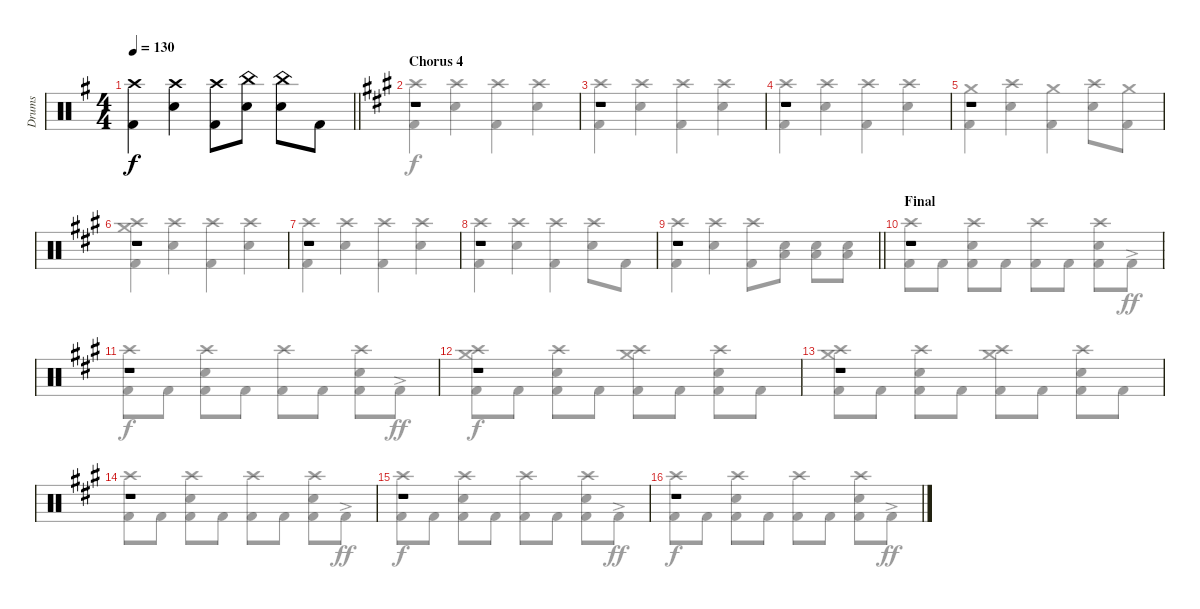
\track ("Drums" "Drums") {instrument percussion}
\staff {score}
\articulation defaults
\voice
\ts (4 4)
\tempo 130
\clef neutral
\barLineRight lightlight
\ks eminor
("Crash high (hit)" "Kick (hit) 2").4{dy f} ("Crash high (hit)" "Snare (hit) 2").4 ("Crash high (hit)" "Kick (hit) 2").8 ("China (hit)" "Snare (hit) 2").8 ("China (hit)" "Snare (hit) 2").8 "Kick (hit) 2".8 |
\section ("" "Chorus 4")
\ks f#minor
r.1 |
r.1 |
r.1 |
r.1 |
r.1 |
r.1 |
r.1 |
\barLineRight lightlight
r.1 |
\section ("" "Final")
r.1 |
r.1 |
r.1 |
r.1 |
r.1 |
r.1 |
r.1
\voice
\clef neutral
\ottava regular
\simile none
\barLineRight lightlight
\ks eminor
|
\ks f#minor
("Crash high (hit)" "Kick (hit) 2").4 ("Crash high (hit)" "Snare (hit) 2").4 ("Crash high (hit)" "Kick (hit) 2").4 ("Crash high (hit)" "Snare (hit) 2").4 |
("Crash high (hit)" "Kick (hit) 2").4 ("Crash high (hit)" "Snare (hit) 2").4 ("Crash high (hit)" "Kick (hit) 2").4 ("Crash high (hit)" "Snare (hit) 2").4 |
("Crash high (hit)" "Kick (hit) 2").4 ("Crash high (hit)" "Snare (hit) 2").4 ("Crash high (hit)" "Kick (hit) 2").4 ("Crash high (hit)" "Snare (hit) 2").4 |
("Crash medium (hit)" "Kick (hit) 2").4 ("Crash high (hit)" "Snare (hit) 2").4 ("Crash medium (hit)" "Kick (hit) 2").4 ("Crash high (hit)" "Snare (hit) 2").8 ("Crash medium (hit)" "Kick (hit) 2").8 |
("Crash medium (hit)" "Crash high (hit)" "Kick (hit) 2").4 ("Crash high (hit)" "Snare (hit) 2").4 ("Crash high (hit)" "Kick (hit) 2").4 ("Crash high (hit)" "Snare (hit) 2").4 |
("Crash high (hit)" "Kick (hit) 2").4 ("Crash high (hit)" "Snare (hit) 2").4 ("Crash high (hit)" "Kick (hit) 2").4 ("Crash high (hit)" "Snare (hit) 2").4 |
("Crash high (hit)" "Kick (hit) 2").4 ("Crash high (hit)" "Snare (hit) 2").4 ("Crash high (hit)" "Kick (hit) 2").4 ("Crash high (hit)" "Snare (hit) 2").8 "Kick (hit) 2".8 |
\barLineRight lightlight
("Crash high (hit)" "Kick (hit) 2").4 ("Crash high (hit)" "Snare (hit) 2").4 ("Crash high (hit)" "Kick (hit) 2").8 ("Low Floor Tom (hit)" "Snare (hit) 2").8 ("Low Floor Tom (hit)" "Snare (hit) 2").8 ("Low Floor Tom (hit)" "Snare (hit) 2").8 |
("Crash high (hit)" "Kick (hit) 2").8 "Kick (hit) 2".8 ("Crash high (hit)" "Snare (hit) 2" "Kick (hit) 2").8 "Kick (hit) 2".8 ("Crash high (hit)" "Kick (hit) 2").8 "Kick (hit) 2".8 ("Crash high (hit)" "Snare (hit) 2" "Kick (hit) 2").8 "Kick (hit) 2"{ac}.8{dy ff} |
("Crash high (hit)" "Kick (hit) 2").8{dy f} "Kick (hit) 2".8 ("Crash high (hit)" "Snare (hit) 2" "Kick (hit) 2").8 "Kick (hit) 2".8 ("Crash high (hit)" "Kick (hit) 2").8 "Kick (hit) 2".8 ("Crash high (hit)" "Snare (hit) 2" "Kick (hit) 2").8 "Kick (hit) 2"{ac}.8{dy ff} |
("Crash medium (hit)" "Crash high (hit)" "Kick (hit) 2").8{dy f} "Kick (hit) 2".8 ("Crash high (hit)" "Snare (hit) 2" "Kick (hit) 2").8 "Kick (hit) 2".8 ("Crash medium (hit)" "Crash high (hit)" "Kick (hit) 2").8 "Kick (hit) 2".8 ("Crash high (hit)" "Snare (hit) 2" "Kick (hit) 2").8 "Kick (hit) 2".8 |
("Crash medium (hit)" "Crash high (hit)" "Kick (hit) 2").8 "Kick (hit) 2".8 ("Crash high (hit)" "Snare (hit) 2" "Kick (hit) 2").8 "Kick (hit) 2".8 ("Crash medium (hit)" "Crash high (hit)" "Kick (hit) 2").8 "Kick (hit) 2".8 ("Crash high (hit)" "Snare (hit) 2" "Kick (hit) 2").8 "Kick (hit) 2".8 |
("Crash high (hit)" "Kick (hit) 2").8 "Kick (hit) 2".8 ("Crash high (hit)" "Snare (hit) 2" "Kick (hit) 2").8 "Kick (hit) 2".8 ("Crash high (hit)" "Kick (hit) 2").8 "Kick (hit) 2".8 ("Crash high (hit)" "Snare (hit) 2" "Kick (hit) 2").8 "Kick (hit) 2"{ac}.8{dy ff} |
("Crash high (hit)" "Kick (hit) 2").8{dy f} "Kick (hit) 2".8 ("Crash high (hit)" "Snare (hit) 2" "Kick (hit) 2").8 "Kick (hit) 2".8 ("Crash high (hit)" "Kick (hit) 2").8 "Kick (hit) 2".8 ("Crash high (hit)" "Snare (hit) 2" "Kick (hit) 2").8 "Kick (hit) 2"{ac}.8{dy ff} |
("Crash high (hit)" "Kick (hit) 2").8{dy f} "Kick (hit) 2".8 ("Crash high (hit)" "Snare (hit) 2" "Kick (hit) 2").8 "Kick (hit) 2".8 ("Crash high (hit)" "Kick (hit) 2").8 "Kick (hit) 2".8 ("Crash high (hit)" "Snare (hit) 2" "Kick (hit) 2").8 "Kick (hit) 2"{ac}.8{dy ff}
